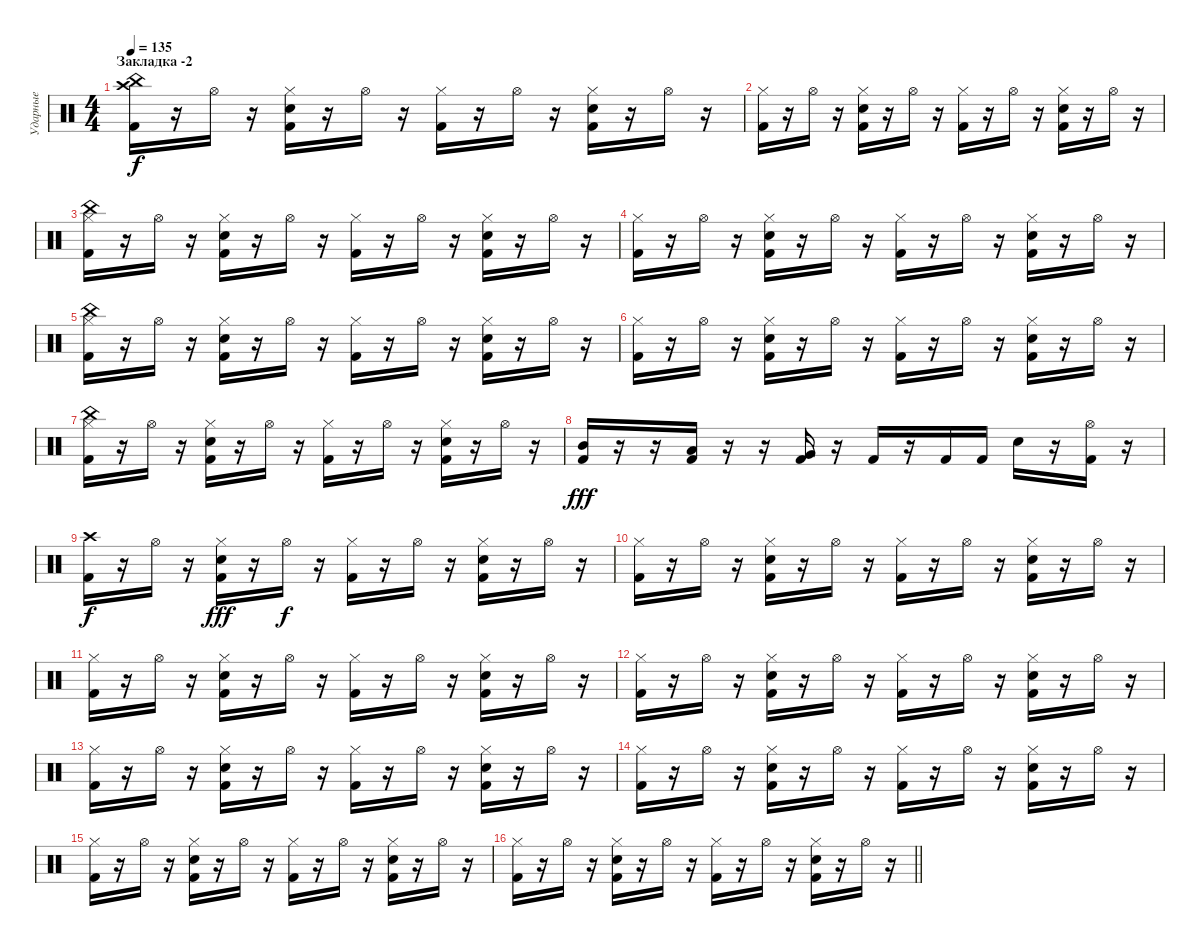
\track ("Ударные" "Ударные") {instrument percussion}
\staff {score}
\articulation defaults
\ts (4 4)
\section ("" "Закладка -2")
\tempo 135
\clef neutral
\ks c
("Crash high (hit)" "China (hit)" "Kick (hit) 2").16{dy f} r.16 "Hi-Hat (open)".16 r.16 ("Hi-Hat (closed)" "Electric Snare (hit)" "Kick (hit) 2").16 r.16 "Hi-Hat (open)".16 r.16 ("Hi-Hat (closed)" "Kick (hit) 2").16 r.16 "Hi-Hat (open)".16 r.16 ("Hi-Hat (closed)" "Electric Snare (hit)" "Kick (hit) 2").16 r.16 "Hi-Hat (open)".16 r.16 |
("Hi-Hat (closed)" "Kick (hit) 2").16 r.16 "Hi-Hat (open)".16 r.16 ("Hi-Hat (closed)" "Electric Snare (hit)" "Kick (hit) 2").16 r.16 "Hi-Hat (open)".16 r.16 ("Hi-Hat (closed)" "Kick (hit) 2").16 r.16 "Hi-Hat (open)".16 r.16 ("Hi-Hat (closed)" "Electric Snare (hit)" "Kick (hit) 2").16 r.16 "Hi-Hat (open)".16 r.16 |
("Hi-Hat (closed)" "China (hit)" "Kick (hit) 2").16 r.16 "Hi-Hat (open)".16 r.16 ("Hi-Hat (closed)" "Electric Snare (hit)" "Kick (hit) 2").16 r.16 "Hi-Hat (open)".16 r.16 ("Hi-Hat (closed)" "Kick (hit) 2").16 r.16 "Hi-Hat (open)".16 r.16 ("Hi-Hat (closed)" "Electric Snare (hit)" "Kick (hit) 2").16 r.16 "Hi-Hat (open)".16 r.16 |
("Hi-Hat (closed)" "Kick (hit) 2").16 r.16 "Hi-Hat (open)".16 r.16 ("Hi-Hat (closed)" "Electric Snare (hit)" "Kick (hit) 2").16 r.16 "Hi-Hat (open)".16 r.16 ("Hi-Hat (closed)" "Kick (hit) 2").16 r.16 "Hi-Hat (open)".16 r.16 ("Hi-Hat (closed)" "Electric Snare (hit)" "Kick (hit) 2").16 r.16 "Hi-Hat (open)".16 r.16 |
("Hi-Hat (closed)" "China (hit)" "Kick (hit) 2").16 r.16 "Hi-Hat (open)".16 r.16 ("Hi-Hat (closed)" "Electric Snare (hit)" "Kick (hit) 2").16 r.16 "Hi-Hat (open)".16 r.16 ("Hi-Hat (closed)" "Kick (hit) 2").16 r.16 "Hi-Hat (open)".16 r.16 ("Hi-Hat (closed)" "Electric Snare (hit)" "Kick (hit) 2").16 r.16 "Hi-Hat (open)".16 r.16 |
("Hi-Hat (closed)" "Kick (hit) 2").16 r.16 "Hi-Hat (open)".16 r.16 ("Hi-Hat (closed)" "Electric Snare (hit)" "Kick (hit) 2").16 r.16 "Hi-Hat (open)".16 r.16 ("Hi-Hat (closed)" "Kick (hit) 2").16 r.16 "Hi-Hat (open)".16 r.16 ("Hi-Hat (closed)" "Electric Snare (hit)" "Kick (hit) 2").16 r.16 "Hi-Hat (open)".16 r.16 |
("Hi-Hat (closed)" "China (hit)" "Kick (hit) 2").16 r.16 "Hi-Hat (open)".16 r.16 ("Hi-Hat (closed)" "Electric Snare (hit)" "Kick (hit) 2").16 r.16 "Hi-Hat (open)".16 r.16 ("Hi-Hat (closed)" "Kick (hit) 2").16 r.16 "Hi-Hat (open)".16 r.16 ("Hi-Hat (closed)" "Electric Snare (hit)" "Kick (hit) 2").16 r.16 "Hi-Hat (open)".16 r.16 |
("Mid Tom (hit)" "Kick (hit) 2").16{dy fff} r.16 r.16 ("Low Tom (hit)" "Kick (hit) 2").16 r.16 r.16 ("Very Low Tom (hit)" "Kick (hit) 2").16 r.16 "Kick (hit) 2".16 r.16 "Kick (hit) 2".16 "Kick (hit) 2".16 "Electric Snare (hit)".16 r.16 ("Hi-Hat (open)" "Kick (hit) 2").16 r.16 |
("Crash high (hit)" "Kick (hit) 2").16{dy f} r.16 "Hi-Hat (open)".16 r.16 ("Hi-Hat (closed)" "Electric Snare (hit)" "Kick (hit) 2").16{dy fff} r.16 "Hi-Hat (open)".16{dy f} r.16 ("Hi-Hat (closed)" "Kick (hit) 2").16 r.16 "Hi-Hat (open)".16 r.16 ("Hi-Hat (closed)" "Electric Snare (hit)" "Kick (hit) 2").16 r.16 "Hi-Hat (open)".16 r.16 |
("Hi-Hat (closed)" "Kick (hit) 2").16 r.16 "Hi-Hat (open)".16 r.16 ("Hi-Hat (closed)" "Electric Snare (hit)" "Kick (hit) 2").16 r.16 "Hi-Hat (open)".16 r.16 ("Hi-Hat (closed)" "Kick (hit) 2").16 r.16 "Hi-Hat (open)".16 r.16 ("Hi-Hat (closed)" "Electric Snare (hit)" "Kick (hit) 2").16 r.16 "Hi-Hat (open)".16 r.16 |
("Hi-Hat (closed)" "Kick (hit) 2").16 r.16 "Hi-Hat (open)".16 r.16 ("Hi-Hat (closed)" "Electric Snare (hit)" "Kick (hit) 2").16 r.16 "Hi-Hat (open)".16 r.16 ("Hi-Hat (closed)" "Kick (hit) 2").16 r.16 "Hi-Hat (open)".16 r.16 ("Hi-Hat (closed)" "Electric Snare (hit)" "Kick (hit) 2").16 r.16 "Hi-Hat (open)".16 r.16 |
("Hi-Hat (closed)" "Kick (hit) 2").16 r.16 "Hi-Hat (open)".16 r.16 ("Hi-Hat (closed)" "Electric Snare (hit)" "Kick (hit) 2").16 r.16 "Hi-Hat (open)".16 r.16 ("Hi-Hat (closed)" "Kick (hit) 2").16 r.16 "Hi-Hat (open)".16 r.16 ("Hi-Hat (closed)" "Electric Snare (hit)" "Kick (hit) 2").16 r.16 "Hi-Hat (open)".16 r.16 |
("Hi-Hat (closed)" "Kick (hit) 2").16 r.16 "Hi-Hat (open)".16 r.16 ("Hi-Hat (closed)" "Electric Snare (hit)" "Kick (hit) 2").16 r.16 "Hi-Hat (open)".16 r.16 ("Hi-Hat (closed)" "Kick (hit) 2").16 r.16 "Hi-Hat (open)".16 r.16 ("Hi-Hat (closed)" "Electric Snare (hit)" "Kick (hit) 2").16 r.16 "Hi-Hat (open)".16 r.16 |
("Hi-Hat (closed)" "Kick (hit) 2").16 r.16 "Hi-Hat (open)".16 r.16 ("Hi-Hat (closed)" "Electric Snare (hit)" "Kick (hit) 2").16 r.16 "Hi-Hat (open)".16 r.16 ("Hi-Hat (closed)" "Kick (hit) 2").16 r.16 "Hi-Hat (open)".16 r.16 ("Hi-Hat (closed)" "Electric Snare (hit)" "Kick (hit) 2").16 r.16 "Hi-Hat (open)".16 r.16 |
("Hi-Hat (closed)" "Kick (hit) 2").16 r.16 "Hi-Hat (open)".16 r.16 ("Hi-Hat (closed)" "Electric Snare (hit)" "Kick (hit) 2").16 r.16 "Hi-Hat (open)".16 r.16 ("Hi-Hat (closed)" "Kick (hit) 2").16 r.16 "Hi-Hat (open)".16 r.16 ("Hi-Hat (closed)" "Electric Snare (hit)" "Kick (hit) 2").16 r.16 "Hi-Hat (open)".16 r.16 |
\barLineRight lightlight
("Hi-Hat (closed)" "Kick (hit) 2").16 r.16 "Hi-Hat (open)".16 r.16 ("Hi-Hat (closed)" "Electric Snare (hit)" "Kick (hit) 2").16 r.16 "Hi-Hat (open)".16 r.16 ("Hi-Hat (closed)" "Kick (hit) 2").16 r.16 "Hi-Hat (open)".16 r.16 ("Hi-Hat (closed)" "Electric Snare (hit)" "Kick (hit) 2").16 r.16 "Hi-Hat (open)".16 r.16
